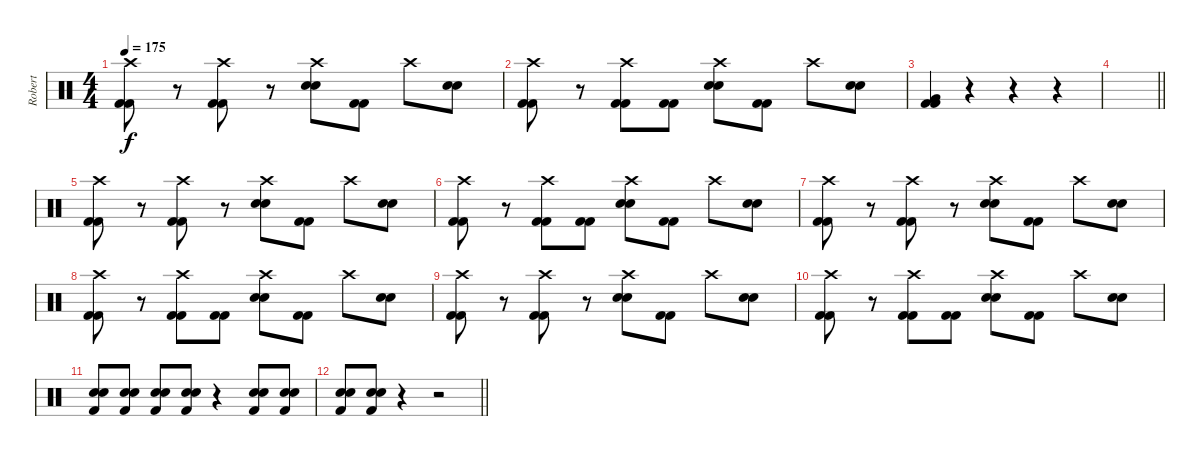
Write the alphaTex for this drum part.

\track ("Robert" "Robert") {instrument percussion}
\staff {score}
\articulation defaults
\ts (4 4)
\tempo 175
\clef neutral
\ks c
("Crash high (hit)" "Kick (hit) 2" "Kick (hit) 2").8{dy f} r.8 ("Crash high (hit)" "Kick (hit) 2" "Kick (hit) 2").8 r.8 ("Crash high (hit)" "Electric Snare (hit)" "Electric Snare (hit)").8 ("Kick (hit) 2" "Kick (hit) 2").8 "Crash high (hit)".8 ("Electric Snare (hit)" "Electric Snare (hit)").8 |
("Crash high (hit)" "Kick (hit) 2" "Kick (hit) 2").8 r.8 ("Crash high (hit)" "Kick (hit) 2" "Kick (hit) 2").8 ("Kick (hit) 2" "Kick (hit) 2").8 ("Crash high (hit)" "Electric Snare (hit)" "Electric Snare (hit)").8 ("Kick (hit) 2" "Kick (hit) 2").8 "Crash high (hit)".8 ("Electric Snare (hit)" "Electric Snare (hit)").8 |
("Very Low Tom (hit)" "Kick (hit) 2" "Kick (hit) 2").4 r.4 r.4 r.4 |
\barLineRight lightlight
|
("Crash high (hit)" "Kick (hit) 2" "Kick (hit) 2").8 r.8 ("Crash high (hit)" "Kick (hit) 2" "Kick (hit) 2").8 r.8 ("Crash high (hit)" "Electric Snare (hit)" "Electric Snare (hit)").8 ("Kick (hit) 2" "Kick (hit) 2").8 "Crash high (hit)".8 ("Electric Snare (hit)" "Electric Snare (hit)").8 |
("Crash high (hit)" "Kick (hit) 2" "Kick (hit) 2").8 r.8 ("Crash high (hit)" "Kick (hit) 2" "Kick (hit) 2").8 ("Kick (hit) 2" "Kick (hit) 2").8 ("Crash high (hit)" "Electric Snare (hit)" "Electric Snare (hit)").8 ("Kick (hit) 2" "Kick (hit) 2").8 "Crash high (hit)".8 ("Electric Snare (hit)" "Electric Snare (hit)").8 |
("Crash high (hit)" "Kick (hit) 2" "Kick (hit) 2").8 r.8 ("Crash high (hit)" "Kick (hit) 2" "Kick (hit) 2").8 r.8 ("Crash high (hit)" "Electric Snare (hit)" "Electric Snare (hit)").8 ("Kick (hit) 2" "Kick (hit) 2").8 "Crash high (hit)".8 ("Electric Snare (hit)" "Electric Snare (hit)").8 |
("Crash high (hit)" "Kick (hit) 2" "Kick (hit) 2").8 r.8 ("Crash high (hit)" "Kick (hit) 2" "Kick (hit) 2").8 ("Kick (hit) 2" "Kick (hit) 2").8 ("Crash high (hit)" "Electric Snare (hit)" "Electric Snare (hit)").8 ("Kick (hit) 2" "Kick (hit) 2").8 "Crash high (hit)".8 ("Electric Snare (hit)" "Electric Snare (hit)").8 |
("Crash high (hit)" "Kick (hit) 2" "Kick (hit) 2").8 r.8 ("Crash high (hit)" "Kick (hit) 2" "Kick (hit) 2").8 r.8 ("Crash high (hit)" "Electric Snare (hit)" "Electric Snare (hit)").8 ("Kick (hit) 2" "Kick (hit) 2").8 "Crash high (hit)".8 ("Electric Snare (hit)" "Electric Snare (hit)").8 |
("Crash high (hit)" "Kick (hit) 2" "Kick (hit) 2").8 r.8 ("Crash high (hit)" "Kick (hit) 2" "Kick (hit) 2").8 ("Kick (hit) 2" "Kick (hit) 2").8 ("Crash high (hit)" "Electric Snare (hit)" "Electric Snare (hit)").8 ("Kick (hit) 2" "Kick (hit) 2").8 "Crash high (hit)".8 ("Electric Snare (hit)" "Electric Snare (hit)").8 |
("Electric Snare (hit)" "Electric Snare (hit)" "Kick (hit) 2").8 ("Electric Snare (hit)" "Electric Snare (hit)" "Kick (hit) 2").8 ("Electric Snare (hit)" "Electric Snare (hit)" "Kick (hit) 2").8 ("Electric Snare (hit)" "Electric Snare (hit)" "Kick (hit) 2").8 r.4 ("Electric Snare (hit)" "Electric Snare (hit)" "Kick (hit) 2").8 ("Electric Snare (hit)" "Electric Snare (hit)" "Kick (hit) 2").8 |
\barLineRight lightlight
("Electric Snare (hit)" "Electric Snare (hit)" "Kick (hit) 2").8 ("Electric Snare (hit)" "Electric Snare (hit)" "Kick (hit) 2").8 r.4 r.2
